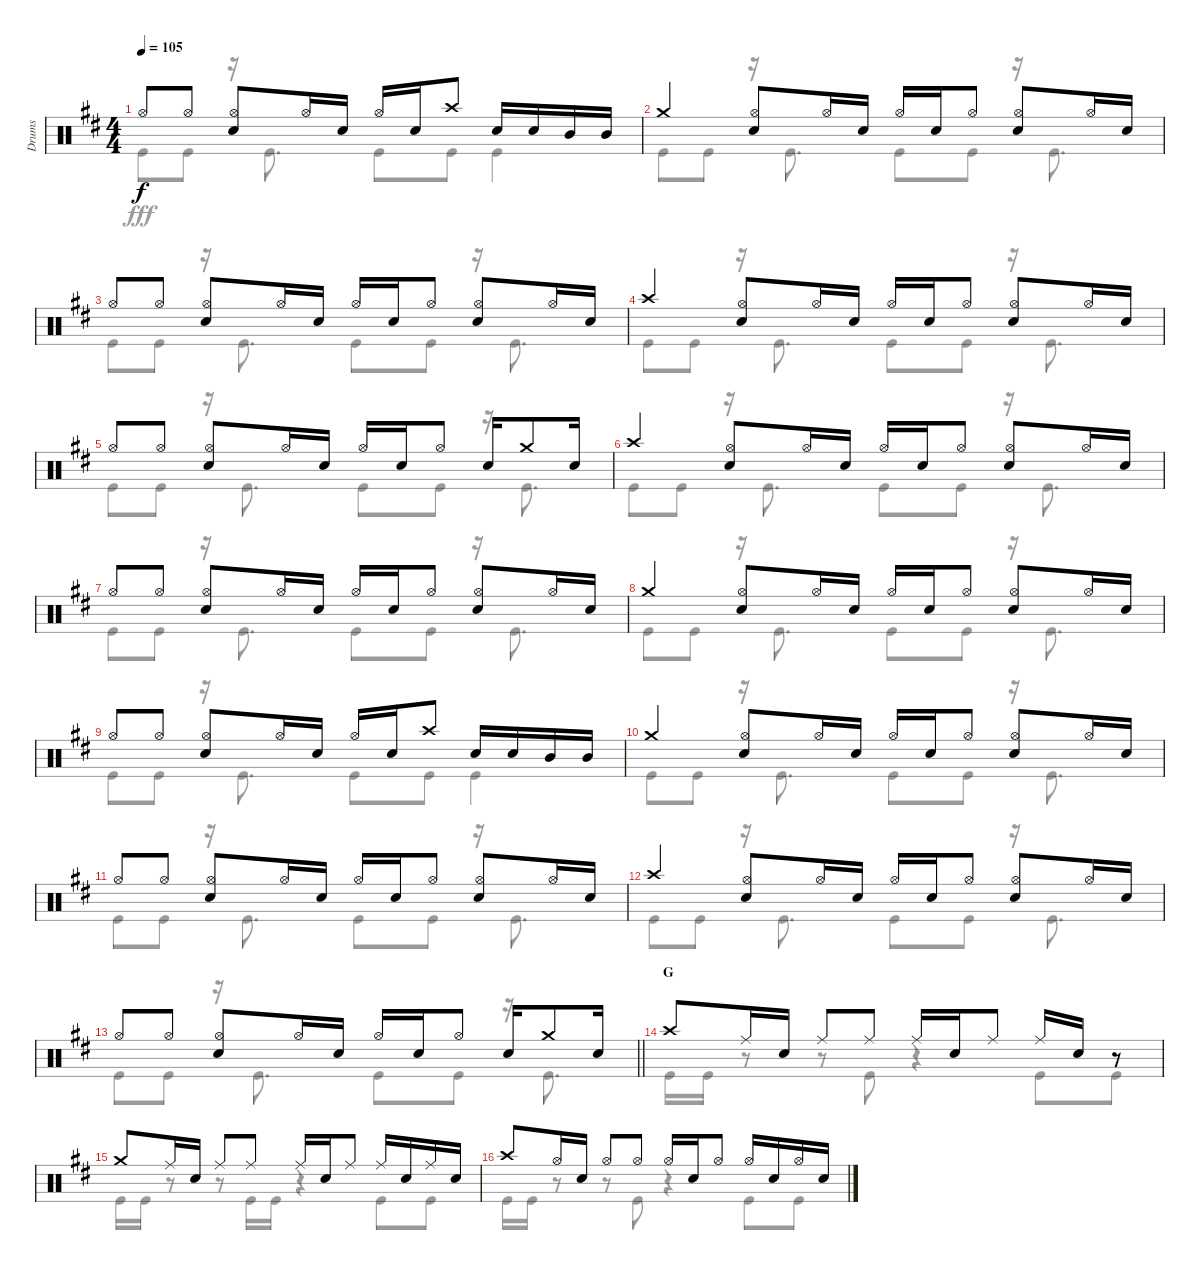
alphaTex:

\track ("Drums" "Drums") {instrument percussion}
\staff {score}
\articulation defaults
\voice
\ts (4 4)
\tempo 105
\clef neutral
\ks d "Hi-Hat (open)".8{dy f} "Hi-Hat (open)".8
("Hi-Hat (open)" "Snare (hit) 2").8 "Hi-Hat (open)".16 "Snare (hit) 2".16 "Hi-Hat (open)".16 "Snare (hit) 2".16 "Crash high (hit)".8 "Snare (hit) 2".16 "Snare (hit) 2".16 "Mid Tom (hit)".16 "Mid Tom (hit)".16 |
"Crash medium (hit)".4 ("Hi-Hat (open)" "Snare (hit) 2").8 "Hi-Hat (open)".16 "Snare (hit) 2".16 "Hi-Hat (open)".16 "Snare (hit) 2".16 "Hi-Hat (open)".8 ("Hi-Hat (open)" "Snare (hit) 2").8 "Hi-Hat (open)".16 "Snare (hit) 2".16 |
"Hi-Hat (open)".8 "Hi-Hat (open)".8 ("Hi-Hat (open)" "Snare (hit) 2").8 "Hi-Hat (open)".16 "Snare (hit) 2".16 "Hi-Hat (open)".16 "Snare (hit) 2".16 "Hi-Hat (open)".8 ("Hi-Hat (open)" "Snare (hit) 2").8 "Hi-Hat (open)".16 "Snare (hit) 2".16 |
"Crash high (hit)".4 ("Hi-Hat (open)" "Snare (hit) 2").8 "Hi-Hat (open)".16 "Snare (hit) 2".16 "Hi-Hat (open)".16 "Snare (hit) 2".16 "Hi-Hat (open)".8 ("Hi-Hat (open)" "Snare (hit) 2").8 "Hi-Hat (open)".16 "Snare (hit) 2".16 |
"Hi-Hat (open)".8 "Hi-Hat (open)".8 ("Hi-Hat (open)" "Snare (hit) 2").8 "Hi-Hat (open)".16 "Snare (hit) 2".16 "Hi-Hat (open)".16 "Snare (hit) 2".16 "Hi-Hat (open)".8 "Snare (hit) 2".16 "Crash medium (hit)".8 "Snare (hit) 2".16 |
"Crash high (hit)".4 ("Hi-Hat (open)" "Snare (hit) 2").8 "Hi-Hat (open)".16 "Snare (hit) 2".16 "Hi-Hat (open)".16 "Snare (hit) 2".16 "Hi-Hat (open)".8 ("Hi-Hat (open)" "Snare (hit) 2").8 "Hi-Hat (open)".16 "Snare (hit) 2".16 |
"Hi-Hat (open)".8 "Hi-Hat (open)".8 ("Hi-Hat (open)" "Snare (hit) 2").8 "Hi-Hat (open)".16 "Snare (hit) 2".16 "Hi-Hat (open)".16 "Snare (hit) 2".16 "Hi-Hat (open)".8 ("Hi-Hat (open)" "Snare (hit) 2").8 "Hi-Hat (open)".16 "Snare (hit) 2".16 |
"Crash medium (hit)".4 ("Hi-Hat (open)" "Snare (hit) 2").8 "Hi-Hat (open)".16 "Snare (hit) 2".16 "Hi-Hat (open)".16 "Snare (hit) 2".16 "Hi-Hat (open)".8 ("Hi-Hat (open)" "Snare (hit) 2").8 "Hi-Hat (open)".16 "Snare (hit) 2".16 |
"Hi-Hat (open)".8 "Hi-Hat (open)".8 ("Hi-Hat (open)" "Snare (hit) 2").8 "Hi-Hat (open)".16 "Snare (hit) 2".16 "Hi-Hat (open)".16 "Snare (hit) 2".16 "Crash high (hit)".8 "Snare (hit) 2".16 "Snare (hit) 2".16 "Mid Tom (hit)".16 "Mid Tom (hit)".16 |
"Crash medium (hit)".4 ("Hi-Hat (open)" "Snare (hit) 2").8 "Hi-Hat (open)".16 "Snare (hit) 2".16 "Hi-Hat (open)".16 "Snare (hit) 2".16 "Hi-Hat (open)".8 ("Hi-Hat (open)" "Snare (hit) 2").8 "Hi-Hat (open)".16 "Snare (hit) 2".16 |
"Hi-Hat (open)".8 "Hi-Hat (open)".8 ("Hi-Hat (open)" "Snare (hit) 2").8 "Hi-Hat (open)".16 "Snare (hit) 2".16 "Hi-Hat (open)".16 "Snare (hit) 2".16 "Hi-Hat (open)".8 ("Hi-Hat (open)" "Snare (hit) 2").8 "Hi-Hat (open)".16 "Snare (hit) 2".16 |
"Crash high (hit)".4 ("Hi-Hat (open)" "Snare (hit) 2").8 "Hi-Hat (open)".16 "Snare (hit) 2".16 "Hi-Hat (open)".16 "Snare (hit) 2".16 "Hi-Hat (open)".8 ("Hi-Hat (open)" "Snare (hit) 2").8 "Hi-Hat (open)".16 "Snare (hit) 2".16 |
\barLineRight lightlight "Hi-Hat (open)".8 "Hi-Hat (open)".8
("Hi-Hat (open)" "Snare (hit) 2").8 "Hi-Hat (open)".16 "Snare (hit) 2".16 "Hi-Hat (open)".16 "Snare (hit) 2".16 "Hi-Hat (open)".8 "Snare (hit) 2".16 "Crash medium (hit)".8 "Snare (hit) 2".16 |
\section ("" "G")
"Crash high (hit)".8 "Ride (middle)".16 "Snare (hit) 2".16 "Ride (middle)".8 "Ride (middle)".8 "Ride (middle)".16 "Snare (hit) 2".16 "Ride (middle)".8 "Ride (middle)".16 "Snare (hit) 2".16 r.8 |
"Crash medium (hit)".8 "Ride (middle)".16 "Snare (hit) 2".16 "Ride (middle)".8 "Ride (middle)".8 "Ride (middle)".16 "Snare (hit) 2".16 "Ride (middle)".8 "Ride (middle)".16 "Snare (hit) 2".16 "Ride (middle)".16 "Snare (hit) 2".16 |
"Crash high (hit)".8 "Hi-Hat (open)".16 "Snare (hit) 2".16 "Hi-Hat (open)".8 "Hi-Hat (open)".8 "Hi-Hat (open)".16 "Snare (hit) 2".16 "Hi-Hat (open)".8 "Hi-Hat (open)".16 "Snare (hit) 2".16 "Hi-Hat (open)".16 "Snare (hit) 2".16
\voice
\clef neutral
\ottava regular
\simile none
\ks d "Kick (hit)".8{dy fff} "Kick (hit)".8
r.16 "Kick (hit)".8{d} "Kick (hit)".8 "Kick (hit)".8 "Kick (hit)".4 |
"Kick (hit)".8 "Kick (hit)".8 r.16 "Kick (hit)".8{d} "Kick (hit)".8 "Kick (hit)".8 r.16 "Kick (hit)".8{d} |
"Kick (hit)".8 "Kick (hit)".8 r.16 "Kick (hit)".8{d} "Kick (hit)".8 "Kick (hit)".8 r.16 "Kick (hit)".8{d} |
"Kick (hit)".8 "Kick (hit)".8 r.16 "Kick (hit)".8{d} "Kick (hit)".8 "Kick (hit)".8 r.16 "Kick (hit)".8{d} |
"Kick (hit)".8 "Kick (hit)".8 r.16 "Kick (hit)".8{d} "Kick (hit)".8 "Kick (hit)".8 r.16 "Kick (hit)".8{d} |
"Kick (hit)".8 "Kick (hit)".8 r.16 "Kick (hit)".8{d} "Kick (hit)".8 "Kick (hit)".8 r.16 "Kick (hit)".8{d} |
"Kick (hit)".8 "Kick (hit)".8 r.16 "Kick (hit)".8{d} "Kick (hit)".8 "Kick (hit)".8 r.16 "Kick (hit)".8{d} |
"Kick (hit)".8 "Kick (hit)".8 r.16 "Kick (hit)".8{d} "Kick (hit)".8 "Kick (hit)".8 r.16 "Kick (hit)".8{d} |
"Kick (hit)".8 "Kick (hit)".8 r.16 "Kick (hit)".8{d} "Kick (hit)".8 "Kick (hit)".8 "Kick (hit)".4 |
"Kick (hit)".8 "Kick (hit)".8 r.16 "Kick (hit)".8{d} "Kick (hit)".8 "Kick (hit)".8 r.16 "Kick (hit)".8{d} |
"Kick (hit)".8 "Kick (hit)".8 r.16 "Kick (hit)".8{d} "Kick (hit)".8 "Kick (hit)".8 r.16 "Kick (hit)".8{d} |
"Kick (hit)".8 "Kick (hit)".8 r.16 "Kick (hit)".8{d} "Kick (hit)".8 "Kick (hit)".8 r.16 "Kick (hit)".8{d} |
\barLineRight lightlight "Kick (hit)".8 "Kick (hit)".8
r.16 "Kick (hit)".8{d} "Kick (hit)".8 "Kick (hit)".8 r.16 "Kick (hit)".8{d} |
"Kick (hit)".16 "Kick (hit)".16 r.8 r.8 "Kick (hit)".8 r.4 "Kick (hit)".8 "Kick (hit)".8 |
"Kick (hit)".16 "Kick (hit)".16 r.8 r.8 "Kick (hit)".16 "Kick (hit)".16 r.4 "Kick (hit)".8 "Kick (hit)".8 |
"Kick (hit)".16 "Kick (hit)".16 r.8 r.8 "Kick (hit)".8 r.4 "Kick (hit)".8 "Kick (hit)".8
